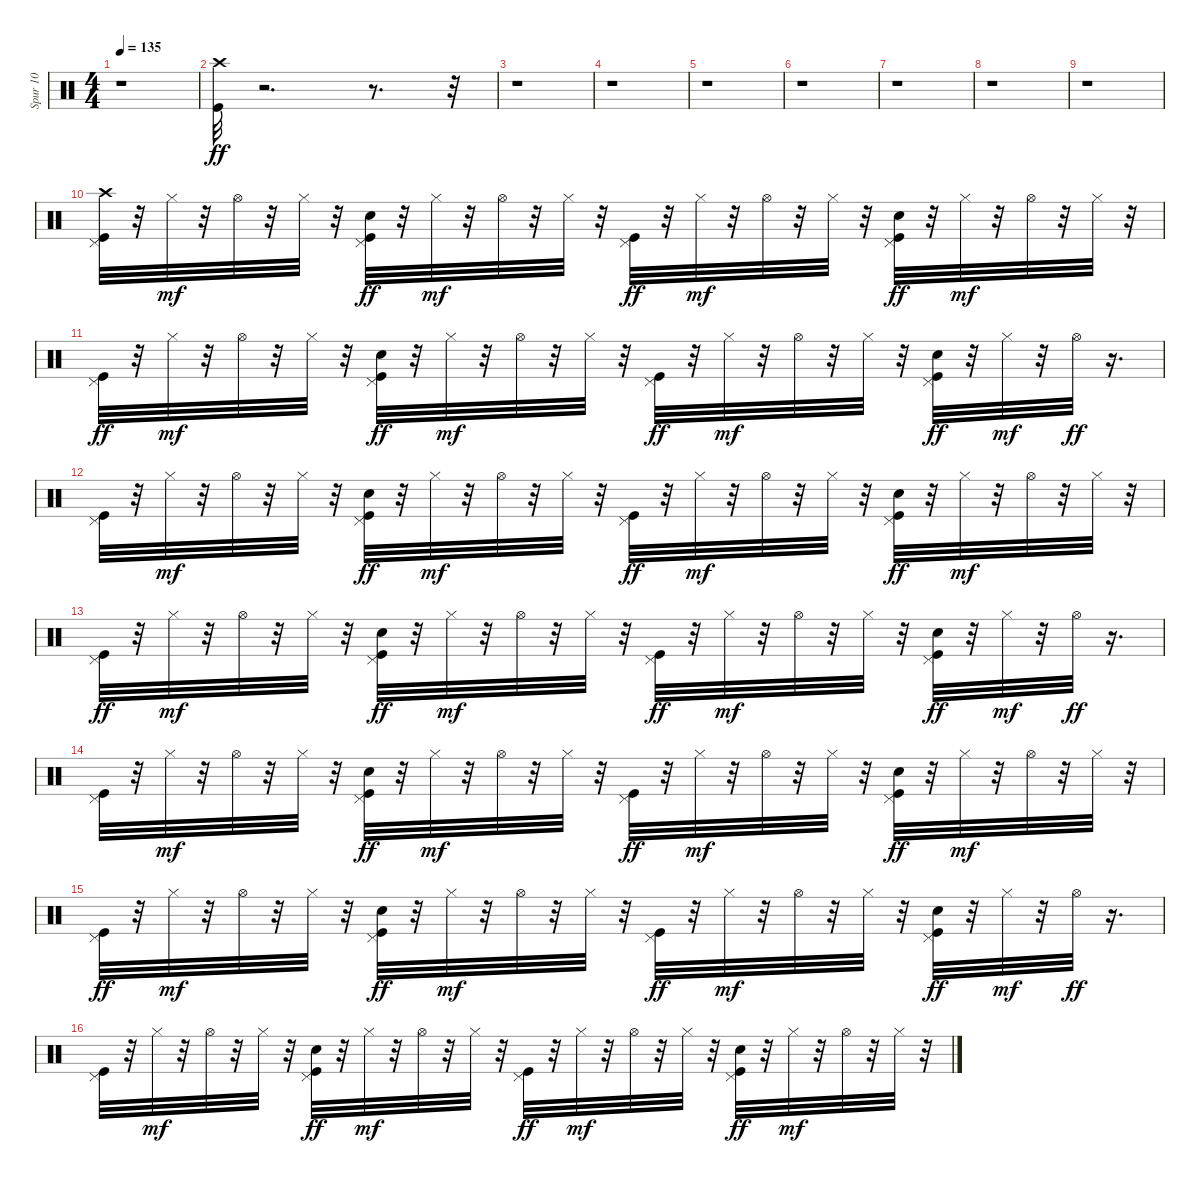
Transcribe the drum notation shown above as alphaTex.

\track ("Spur 10" "Spur 10") {instrument percussion}
\staff {score}
\articulation defaults
\ts (4 4)
\tempo 135
\clef neutral
\ks c
r.1{dy ff} |
("Crash high (hit)" "Kick (hit)").32{balance 8} r.2{d} r.8{d} r.32 |
r.1 |
r.1 |
r.1 |
r.1 |
r.1 |
r.1 |
r.1 |
("Crash high (hit)" "Kick (hit)" "Pedal Hi-Hat (hit)").32 r.32 "Hi-Hat (closed)".32{dy mf} r.32 "Hi-Hat (open)".32 r.32 "Hi-Hat (closed)".32 r.32 ("Kick (hit)" "Hand Clap (hit)" "Pedal Hi-Hat (hit)").32{dy ff} r.32 "Hi-Hat (closed)".32{dy mf} r.32 "Hi-Hat (open)".32 r.32 "Hi-Hat (closed)".32 r.32 ("Kick (hit)" "Pedal Hi-Hat (hit)").32{dy ff} r.32 "Hi-Hat (closed)".32{dy mf} r.32 "Hi-Hat (open)".32 r.32 "Hi-Hat (closed)".32 r.32 ("Kick (hit)" "Hand Clap (hit)" "Pedal Hi-Hat (hit)").32{dy ff} r.32 "Hi-Hat (closed)".32{dy mf} r.32 "Hi-Hat (open)".32 r.32 "Hi-Hat (closed)".32 r.32 |
("Kick (hit)" "Pedal Hi-Hat (hit)").32{dy ff} r.32 "Hi-Hat (closed)".32{dy mf} r.32 "Hi-Hat (open)".32 r.32 "Hi-Hat (closed)".32 r.32 ("Kick (hit)" "Hand Clap (hit)" "Pedal Hi-Hat (hit)").32{dy ff} r.32 "Hi-Hat (closed)".32{dy mf} r.32 "Hi-Hat (open)".32 r.32 "Hi-Hat (closed)".32 r.32 ("Kick (hit)" "Pedal Hi-Hat (hit)").32{dy ff} r.32 "Hi-Hat (closed)".32{dy mf} r.32 "Hi-Hat (open)".32 r.32 "Hi-Hat (closed)".32 r.32 ("Kick (hit)" "Hand Clap (hit)" "Pedal Hi-Hat (hit)").32{dy ff} r.32 "Hi-Hat (closed)".32{dy mf} r.32 "Hi-Hat (open)".32{dy ff} r.16{d} |
("Kick (hit)" "Pedal Hi-Hat (hit)").32 r.32 "Hi-Hat (closed)".32{dy mf} r.32 "Hi-Hat (open)".32 r.32 "Hi-Hat (closed)".32 r.32 ("Kick (hit)" "Hand Clap (hit)" "Pedal Hi-Hat (hit)").32{dy ff} r.32 "Hi-Hat (closed)".32{dy mf} r.32 "Hi-Hat (open)".32 r.32 "Hi-Hat (closed)".32 r.32 ("Kick (hit)" "Pedal Hi-Hat (hit)").32{dy ff} r.32 "Hi-Hat (closed)".32{dy mf} r.32 "Hi-Hat (open)".32 r.32 "Hi-Hat (closed)".32 r.32 ("Kick (hit)" "Hand Clap (hit)" "Pedal Hi-Hat (hit)").32{dy ff} r.32 "Hi-Hat (closed)".32{dy mf} r.32 "Hi-Hat (open)".32 r.32 "Hi-Hat (closed)".32 r.32 |
("Kick (hit)" "Pedal Hi-Hat (hit)").32{dy ff} r.32 "Hi-Hat (closed)".32{dy mf} r.32 "Hi-Hat (open)".32 r.32 "Hi-Hat (closed)".32 r.32 ("Kick (hit)" "Hand Clap (hit)" "Pedal Hi-Hat (hit)").32{dy ff} r.32 "Hi-Hat (closed)".32{dy mf} r.32 "Hi-Hat (open)".32 r.32 "Hi-Hat (closed)".32 r.32 ("Kick (hit)" "Pedal Hi-Hat (hit)").32{dy ff} r.32 "Hi-Hat (closed)".32{dy mf} r.32 "Hi-Hat (open)".32 r.32 "Hi-Hat (closed)".32 r.32 ("Kick (hit)" "Hand Clap (hit)" "Pedal Hi-Hat (hit)").32{dy ff} r.32 "Hi-Hat (closed)".32{dy mf} r.32 "Hi-Hat (open)".32{dy ff} r.16{d} |
("Kick (hit)" "Pedal Hi-Hat (hit)").32 r.32 "Hi-Hat (closed)".32{dy mf} r.32 "Hi-Hat (open)".32 r.32 "Hi-Hat (closed)".32 r.32 ("Kick (hit)" "Hand Clap (hit)" "Pedal Hi-Hat (hit)").32{dy ff} r.32 "Hi-Hat (closed)".32{dy mf} r.32 "Hi-Hat (open)".32 r.32 "Hi-Hat (closed)".32 r.32 ("Kick (hit)" "Pedal Hi-Hat (hit)").32{dy ff} r.32 "Hi-Hat (closed)".32{dy mf} r.32 "Hi-Hat (open)".32 r.32 "Hi-Hat (closed)".32 r.32 ("Kick (hit)" "Hand Clap (hit)" "Pedal Hi-Hat (hit)").32{dy ff} r.32 "Hi-Hat (closed)".32{dy mf} r.32 "Hi-Hat (open)".32 r.32 "Hi-Hat (closed)".32 r.32 |
("Kick (hit)" "Pedal Hi-Hat (hit)").32{dy ff} r.32 "Hi-Hat (closed)".32{dy mf} r.32 "Hi-Hat (open)".32 r.32 "Hi-Hat (closed)".32 r.32 ("Kick (hit)" "Hand Clap (hit)" "Pedal Hi-Hat (hit)").32{dy ff} r.32 "Hi-Hat (closed)".32{dy mf} r.32 "Hi-Hat (open)".32 r.32 "Hi-Hat (closed)".32 r.32 ("Kick (hit)" "Pedal Hi-Hat (hit)").32{dy ff} r.32 "Hi-Hat (closed)".32{dy mf} r.32 "Hi-Hat (open)".32 r.32 "Hi-Hat (closed)".32 r.32 ("Kick (hit)" "Hand Clap (hit)" "Pedal Hi-Hat (hit)").32{dy ff} r.32 "Hi-Hat (closed)".32{dy mf} r.32 "Hi-Hat (open)".32{dy ff} r.16{d} |
("Kick (hit)" "Pedal Hi-Hat (hit)").32 r.32 "Hi-Hat (closed)".32{dy mf} r.32 "Hi-Hat (open)".32 r.32 "Hi-Hat (closed)".32 r.32 ("Kick (hit)" "Hand Clap (hit)" "Pedal Hi-Hat (hit)").32{dy ff} r.32 "Hi-Hat (closed)".32{dy mf} r.32 "Hi-Hat (open)".32 r.32 "Hi-Hat (closed)".32 r.32 ("Kick (hit)" "Pedal Hi-Hat (hit)").32{dy ff} r.32 "Hi-Hat (closed)".32{dy mf} r.32 "Hi-Hat (open)".32 r.32 "Hi-Hat (closed)".32 r.32 ("Kick (hit)" "Hand Clap (hit)" "Pedal Hi-Hat (hit)").32{dy ff} r.32 "Hi-Hat (closed)".32{dy mf} r.32 "Hi-Hat (open)".32 r.32 "Hi-Hat (closed)".32 r.32
